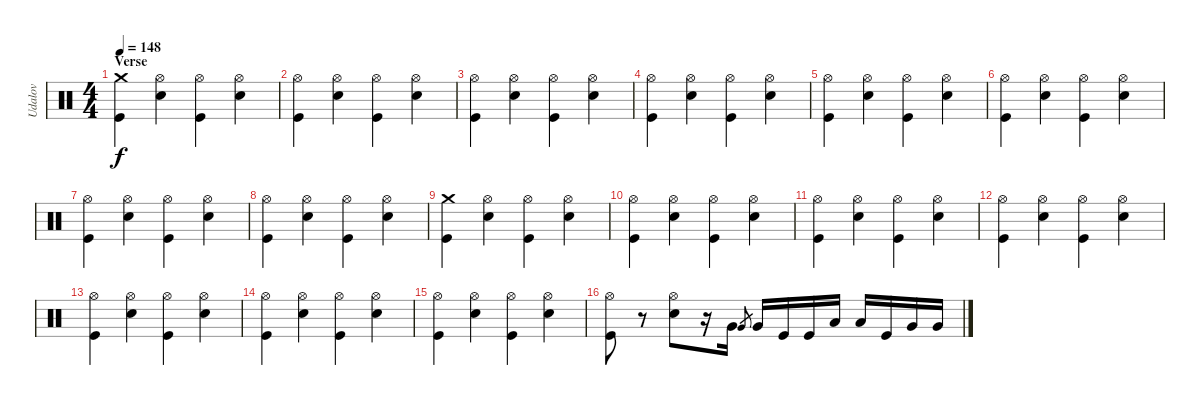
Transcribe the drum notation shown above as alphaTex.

\track ("Udalov" "Udalov") {instrument percussion}
\staff {score}
\articulation defaults
\ts (4 4)
\section ("" "Verse ")
\tempo 148
\clef neutral
\ks c
("Kick (hit)" "Crash medium (hit)").4{dy f} ("Electric Snare (hit)" "Hi-Hat (open)").4 ("Kick (hit)" "Hi-Hat (open)").4 ("Electric Snare (hit)" "Hi-Hat (open)").4 |
("Kick (hit)" "Hi-Hat (open)").4 ("Electric Snare (hit)" "Hi-Hat (open)").4 ("Kick (hit)" "Hi-Hat (open)").4 ("Electric Snare (hit)" "Hi-Hat (open)").4 |
("Kick (hit)" "Hi-Hat (open)").4 ("Electric Snare (hit)" "Hi-Hat (open)").4 ("Kick (hit)" "Hi-Hat (open)").4 ("Electric Snare (hit)" "Hi-Hat (open)").4 |
("Kick (hit)" "Hi-Hat (open)").4 ("Electric Snare (hit)" "Hi-Hat (open)").4 ("Kick (hit)" "Hi-Hat (open)").4 ("Electric Snare (hit)" "Hi-Hat (open)").4 |
("Kick (hit)" "Hi-Hat (open)").4 ("Electric Snare (hit)" "Hi-Hat (open)").4 ("Kick (hit)" "Hi-Hat (open)").4 ("Electric Snare (hit)" "Hi-Hat (open)").4 |
("Kick (hit)" "Hi-Hat (open)").4 ("Electric Snare (hit)" "Hi-Hat (open)").4 ("Kick (hit)" "Hi-Hat (open)").4 ("Electric Snare (hit)" "Hi-Hat (open)").4 |
("Kick (hit)" "Hi-Hat (open)").4 ("Electric Snare (hit)" "Hi-Hat (open)").4 ("Kick (hit)" "Hi-Hat (open)").4 ("Electric Snare (hit)" "Hi-Hat (open)").4 |
("Kick (hit)" "Hi-Hat (open)").4 ("Electric Snare (hit)" "Hi-Hat (open)").4 ("Kick (hit)" "Hi-Hat (open)").4 ("Electric Snare (hit)" "Hi-Hat (open)").4 |
("Kick (hit)" "Crash medium (hit)").4 ("Electric Snare (hit)" "Hi-Hat (open)").4 ("Kick (hit)" "Hi-Hat (open)").4 ("Electric Snare (hit)" "Hi-Hat (open)").4 |
("Kick (hit)" "Hi-Hat (open)").4 ("Electric Snare (hit)" "Hi-Hat (open)").4 ("Kick (hit)" "Hi-Hat (open)").4 ("Electric Snare (hit)" "Hi-Hat (open)").4 |
("Kick (hit)" "Hi-Hat (open)").4 ("Electric Snare (hit)" "Hi-Hat (open)").4 ("Kick (hit)" "Hi-Hat (open)").4 ("Electric Snare (hit)" "Hi-Hat (open)").4 |
("Kick (hit)" "Hi-Hat (open)").4 ("Electric Snare (hit)" "Hi-Hat (open)").4 ("Kick (hit)" "Hi-Hat (open)").4 ("Electric Snare (hit)" "Hi-Hat (open)").4 |
("Kick (hit)" "Hi-Hat (open)").4 ("Electric Snare (hit)" "Hi-Hat (open)").4 ("Kick (hit)" "Hi-Hat (open)").4 ("Electric Snare (hit)" "Hi-Hat (open)").4 |
("Kick (hit)" "Hi-Hat (open)").4 ("Electric Snare (hit)" "Hi-Hat (open)").4 ("Kick (hit)" "Hi-Hat (open)").4 ("Electric Snare (hit)" "Hi-Hat (open)").4 |
("Kick (hit)" "Hi-Hat (open)").4 ("Electric Snare (hit)" "Hi-Hat (open)").4 ("Kick (hit)" "Hi-Hat (open)").4 ("Electric Snare (hit)" "Hi-Hat (open)").4 |
("Kick (hit)" "Hi-Hat (open)").8 r.8 ("Electric Snare (hit)" "Hi-Hat (open)").8 r.16 "Very Low Tom (hit)".16 "Very Low Tom (hit)".8{gr} "Very Low Tom (hit)".16 "Kick (hit)".16 "Kick (hit)".16 "Low Tom (hit)".16 "Low Tom (hit)".16 "Kick (hit)".16 "Very Low Tom (hit)".16 "Very Low Tom (hit)".16
